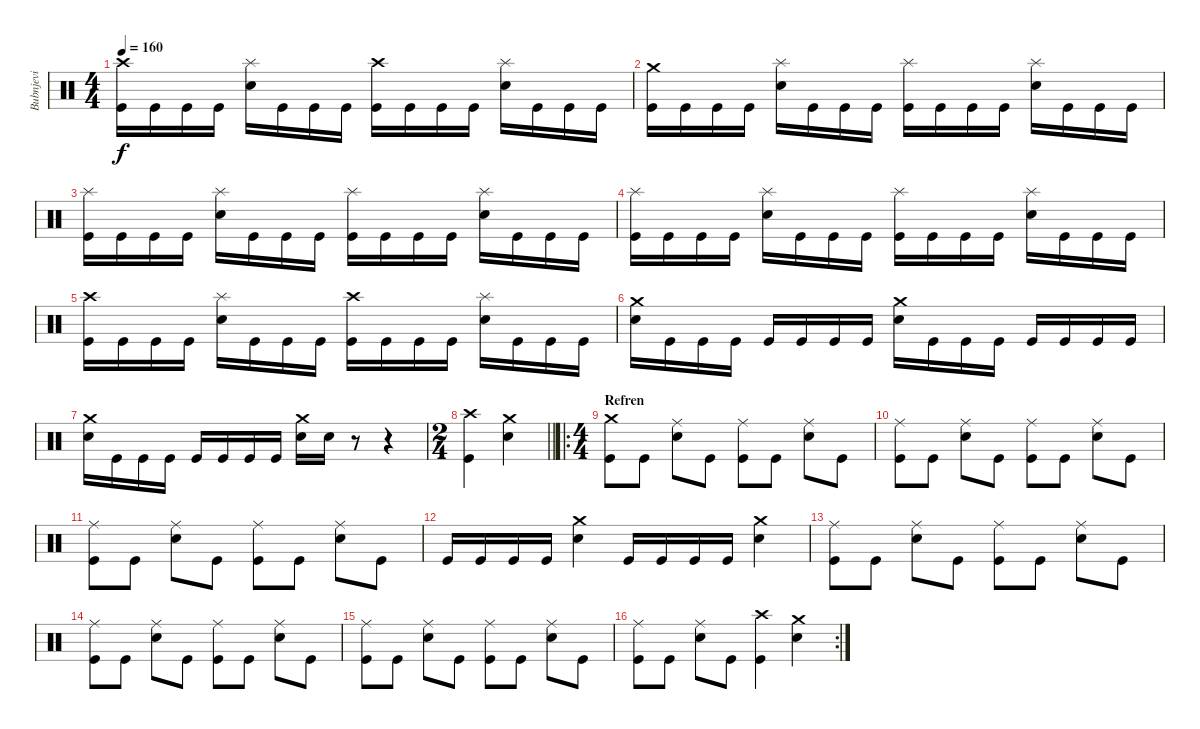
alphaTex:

\track ("Bubnjevi" "Bubnjevi") {instrument percussion}
\staff {score}
\articulation defaults
\ts (4 4)
\tempo 160
\clef neutral
\ks c
("Kick (hit)" "Crash high (hit)").16{dy f} "Kick (hit)".16 "Kick (hit)".16 "Kick (hit)".16 ("Snare (hit) 2" "Splash (hit)").16 "Kick (hit)".16 "Kick (hit)".16 "Kick (hit)".16 ("Kick (hit)" "Crash high (hit)").16 "Kick (hit)".16 "Kick (hit)".16 "Kick (hit)".16 ("Snare (hit) 2" "Splash (hit)").16 "Kick (hit)".16 "Kick (hit)".16 "Kick (hit)".16 |
("Kick (hit)" "Crash medium (hit)").16 "Kick (hit)".16 "Kick (hit)".16 "Kick (hit)".16 ("Snare (hit) 2" "Splash (hit)").16 "Kick (hit)".16 "Kick (hit)".16 "Kick (hit)".16 ("Kick (hit)" "Splash (hit)").16 "Kick (hit)".16 "Kick (hit)".16 "Kick (hit)".16 ("Snare (hit) 2" "Splash (hit)").16 "Kick (hit)".16 "Kick (hit)".16 "Kick (hit)".16 |
("Kick (hit)" "Splash (hit)").16 "Kick (hit)".16 "Kick (hit)".16 "Kick (hit)".16 ("Snare (hit) 2" "Splash (hit)").16 "Kick (hit)".16 "Kick (hit)".16 "Kick (hit)".16 ("Kick (hit)" "Splash (hit)").16 "Kick (hit)".16 "Kick (hit)".16 "Kick (hit)".16 ("Snare (hit) 2" "Splash (hit)").16 "Kick (hit)".16 "Kick (hit)".16 "Kick (hit)".16 |
("Kick (hit)" "Splash (hit)").16 "Kick (hit)".16 "Kick (hit)".16 "Kick (hit)".16 ("Snare (hit) 2" "Splash (hit)").16 "Kick (hit)".16 "Kick (hit)".16 "Kick (hit)".16 ("Kick (hit)" "Splash (hit)").16 "Kick (hit)".16 "Kick (hit)".16 "Kick (hit)".16 ("Snare (hit) 2" "Splash (hit)").16 "Kick (hit)".16 "Kick (hit)".16 "Kick (hit)".16 |
("Kick (hit)" "Crash high (hit)").16 "Kick (hit)".16 "Kick (hit)".16 "Kick (hit)".16 ("Snare (hit) 2" "Splash (hit)").16 "Kick (hit)".16 "Kick (hit)".16 "Kick (hit)".16 ("Kick (hit)" "Crash high (hit)").16 "Kick (hit)".16 "Kick (hit)".16 "Kick (hit)".16 ("Snare (hit) 2" "Splash (hit)").16 "Kick (hit)".16 "Kick (hit)".16 "Kick (hit)".16 |
("Crash medium (hit)" "Snare (hit) 2").16 "Kick (hit)".16 "Kick (hit)".16 "Kick (hit)".16 "Kick (hit)".16 "Kick (hit)".16 "Kick (hit)".16 "Kick (hit)".16 ("Crash medium (hit)" "Snare (hit) 2").16 "Kick (hit)".16 "Kick (hit)".16 "Kick (hit)".16 "Kick (hit)".16 "Kick (hit)".16 "Kick (hit)".16 "Kick (hit)".16 |
("Crash medium (hit)" "Snare (hit) 2").16 "Kick (hit)".16 "Kick (hit)".16 "Kick (hit)".16 "Kick (hit)".16 "Kick (hit)".16 "Kick (hit)".16 "Kick (hit)".16 ("Crash medium (hit)" "Snare (hit) 2").16 "Snare (hit) 2".16 r.8 r.4 |
\ts (2 4)
\barLineRight lightlight
("Kick (hit)" "Crash high (hit)").4 ("Snare (hit) 2" "Crash medium (hit)").4 |
\ro
\ts (4 4)
\section ("" "Refren")
("Kick (hit)" "Crash medium (hit)").8 "Kick (hit)".8 ("Snare (hit) 2" "Ride (middle)").8 "Kick (hit)".8 ("Kick (hit)" "Ride (middle)").8 "Kick (hit)".8 ("Snare (hit) 2" "Ride (middle)").8 "Kick (hit)".8 |
("Kick (hit)" "Ride (middle)").8 "Kick (hit)".8 ("Snare (hit) 2" "Ride (middle)").8 "Kick (hit)".8 ("Kick (hit)" "Ride (middle)").8 "Kick (hit)".8 ("Snare (hit) 2" "Ride (middle)").8 "Kick (hit)".8 |
("Kick (hit)" "Ride (middle)").8 "Kick (hit)".8 ("Snare (hit) 2" "Ride (middle)").8 "Kick (hit)".8 ("Kick (hit)" "Ride (middle)").8 "Kick (hit)".8 ("Snare (hit) 2" "Ride (middle)").8 "Kick (hit)".8 |
"Kick (hit)".16 "Kick (hit)".16 "Kick (hit)".16 "Kick (hit)".16 ("Snare (hit) 2" "Crash medium (hit)").4 "Kick (hit)".16 "Kick (hit)".16 "Kick (hit)".16 "Kick (hit)".16 ("Snare (hit) 2" "Crash medium (hit)").4 |
("Kick (hit)" "Ride (middle)").8 "Kick (hit)".8 ("Snare (hit) 2" "Ride (middle)").8 "Kick (hit)".8 ("Kick (hit)" "Ride (middle)").8 "Kick (hit)".8 ("Snare (hit) 2" "Ride (middle)").8 "Kick (hit)".8 |
("Kick (hit)" "Ride (middle)").8 "Kick (hit)".8 ("Snare (hit) 2" "Ride (middle)").8 "Kick (hit)".8 ("Kick (hit)" "Ride (middle)").8 "Kick (hit)".8 ("Snare (hit) 2" "Ride (middle)").8 "Kick (hit)".8 |
("Kick (hit)" "Ride (middle)").8 "Kick (hit)".8 ("Snare (hit) 2" "Ride (middle)").8 "Kick (hit)".8 ("Kick (hit)" "Ride (middle)").8 "Kick (hit)".8 ("Snare (hit) 2" "Ride (middle)").8 "Kick (hit)".8 |
\rc 2
("Kick (hit)" "Ride (middle)").8 "Kick (hit)".8 ("Snare (hit) 2" "Ride (middle)").8 "Kick (hit)".8 ("Kick (hit)" "Crash high (hit)").4 ("Snare (hit) 2" "Crash medium (hit)").4
